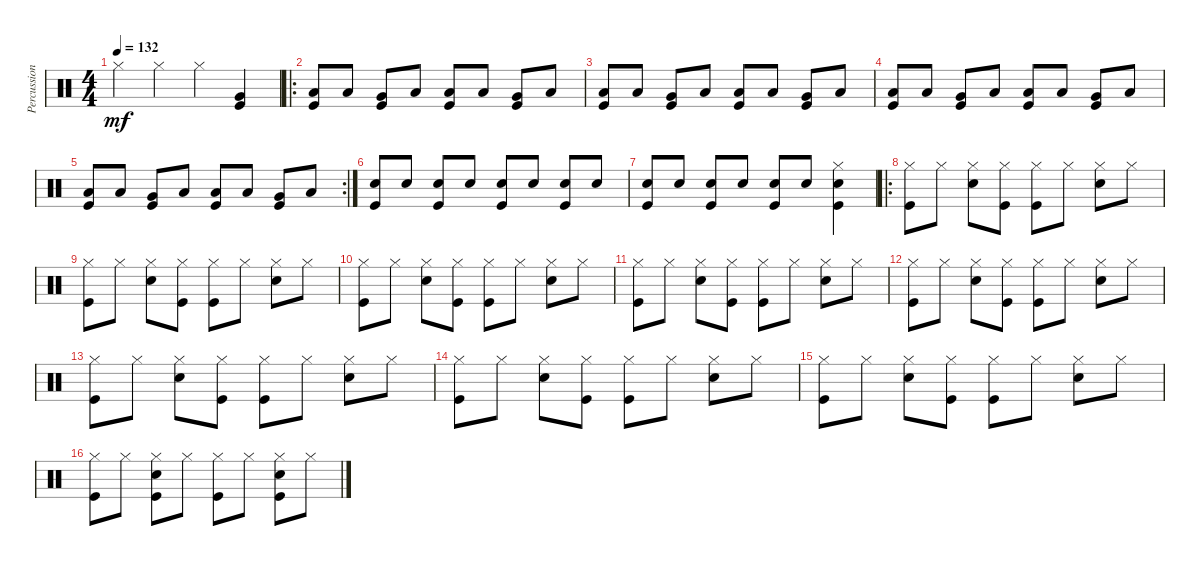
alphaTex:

\track ("Percussions" "Percussion") {instrument percussion}
\staff {score}
\articulation defaults
\ts (4 4)
\tempo 132
\clef neutral
\ks c "Hi-Hat (closed)".4{dy mf} "Hi-Hat (closed)".4 "Hi-Hat (closed)".4
("Very Low Tom (hit)" "Kick (hit)").4 |
\ro
("Low Floor Tom (hit)" "Kick (hit)").8 "Low Floor Tom (hit)".8 ("Very Low Tom (hit)" "Kick (hit)").8 "Low Floor Tom (hit)".8 ("Low Floor Tom (hit)" "Kick (hit)").8 "Low Floor Tom (hit)".8 ("Very Low Tom (hit)" "Kick (hit)").8 "Low Floor Tom (hit)".8 |
("Low Floor Tom (hit)" "Kick (hit)").8 "Low Floor Tom (hit)".8 ("Very Low Tom (hit)" "Kick (hit)").8 "Low Floor Tom (hit)".8 ("Low Floor Tom (hit)" "Kick (hit)").8 "Low Floor Tom (hit)".8 ("Very Low Tom (hit)" "Kick (hit)").8 "Low Floor Tom (hit)".8 |
("Low Floor Tom (hit)" "Kick (hit)").8 "Low Floor Tom (hit)".8 ("Very Low Tom (hit)" "Kick (hit)").8 "Low Floor Tom (hit)".8 ("Low Floor Tom (hit)" "Kick (hit)").8 "Low Floor Tom (hit)".8 ("Very Low Tom (hit)" "Kick (hit)").8 "Low Floor Tom (hit)".8 |
\rc 2
("Low Floor Tom (hit)" "Kick (hit)").8 "Low Floor Tom (hit)".8 ("Very Low Tom (hit)" "Kick (hit)").8 "Low Floor Tom (hit)".8 ("Low Floor Tom (hit)" "Kick (hit)").8 "Low Floor Tom (hit)".8 ("Very Low Tom (hit)" "Kick (hit)").8 "Low Floor Tom (hit)".8 |
("Snare (hit) 2" "Kick (hit)").8 "Snare (hit) 2".8 ("Snare (hit) 2" "Kick (hit)").8 "Snare (hit) 2".8 ("Snare (hit) 2" "Kick (hit)").8 "Snare (hit) 2".8 ("Snare (hit) 2" "Kick (hit)").8 "Snare (hit) 2".8 |
("Snare (hit) 2" "Kick (hit)").8 "Snare (hit) 2".8 ("Snare (hit) 2" "Kick (hit)").8 "Snare (hit) 2".8 ("Snare (hit) 2" "Kick (hit)").8 "Snare (hit) 2".8 ("Hi-Hat (closed)" "Snare (hit) 2" "Kick (hit)").4 |
\ro
("Hi-Hat (closed)" "Kick (hit)").8 "Hi-Hat (closed)".8 ("Hi-Hat (closed)" "Snare (hit) 2").8 ("Hi-Hat (closed)" "Kick (hit)").8 ("Hi-Hat (closed)" "Kick (hit)").8 "Hi-Hat (closed)".8 ("Hi-Hat (closed)" "Snare (hit) 2").8 "Hi-Hat (closed)".8 |
("Hi-Hat (closed)" "Kick (hit)").8 "Hi-Hat (closed)".8 ("Hi-Hat (closed)" "Snare (hit) 2").8 ("Hi-Hat (closed)" "Kick (hit)").8 ("Hi-Hat (closed)" "Kick (hit)").8 "Hi-Hat (closed)".8 ("Hi-Hat (closed)" "Snare (hit) 2").8 "Hi-Hat (closed)".8 |
("Hi-Hat (closed)" "Kick (hit)").8 "Hi-Hat (closed)".8 ("Hi-Hat (closed)" "Snare (hit) 2").8 ("Hi-Hat (closed)" "Kick (hit)").8 ("Hi-Hat (closed)" "Kick (hit)").8 "Hi-Hat (closed)".8 ("Hi-Hat (closed)" "Snare (hit) 2").8 "Hi-Hat (closed)".8 |
("Hi-Hat (closed)" "Kick (hit)").8 "Hi-Hat (closed)".8 ("Hi-Hat (closed)" "Snare (hit) 2").8 ("Hi-Hat (closed)" "Kick (hit)").8 ("Hi-Hat (closed)" "Kick (hit)").8 "Hi-Hat (closed)".8 ("Hi-Hat (closed)" "Snare (hit) 2").8 "Hi-Hat (closed)".8 |
("Hi-Hat (closed)" "Kick (hit)").8 "Hi-Hat (closed)".8 ("Hi-Hat (closed)" "Snare (hit) 2").8 ("Hi-Hat (closed)" "Kick (hit)").8 ("Hi-Hat (closed)" "Kick (hit)").8 "Hi-Hat (closed)".8 ("Hi-Hat (closed)" "Snare (hit) 2").8 "Hi-Hat (closed)".8 |
("Hi-Hat (closed)" "Kick (hit)").8 "Hi-Hat (closed)".8 ("Hi-Hat (closed)" "Snare (hit) 2").8 ("Hi-Hat (closed)" "Kick (hit)").8 ("Hi-Hat (closed)" "Kick (hit)").8 "Hi-Hat (closed)".8 ("Hi-Hat (closed)" "Snare (hit) 2").8 "Hi-Hat (closed)".8 |
("Hi-Hat (closed)" "Kick (hit)").8 "Hi-Hat (closed)".8 ("Hi-Hat (closed)" "Snare (hit) 2").8 ("Hi-Hat (closed)" "Kick (hit)").8 ("Hi-Hat (closed)" "Kick (hit)").8 "Hi-Hat (closed)".8 ("Hi-Hat (closed)" "Snare (hit) 2").8 "Hi-Hat (closed)".8 |
("Hi-Hat (closed)" "Kick (hit)").8 "Hi-Hat (closed)".8 ("Hi-Hat (closed)" "Snare (hit) 2").8 ("Hi-Hat (closed)" "Kick (hit)").8 ("Hi-Hat (closed)" "Kick (hit)").8 "Hi-Hat (closed)".8 ("Hi-Hat (closed)" "Snare (hit) 2").8 "Hi-Hat (closed)".8 |
("Hi-Hat (closed)" "Kick (hit)").8 "Hi-Hat (closed)".8 ("Hi-Hat (closed)" "Snare (hit) 2" "Kick (hit)").8 "Hi-Hat (closed)".8 ("Hi-Hat (closed)" "Kick (hit)").8 "Hi-Hat (closed)".8 ("Hi-Hat (closed)" "Snare (hit) 2" "Kick (hit)").8 "Hi-Hat (closed)".8
